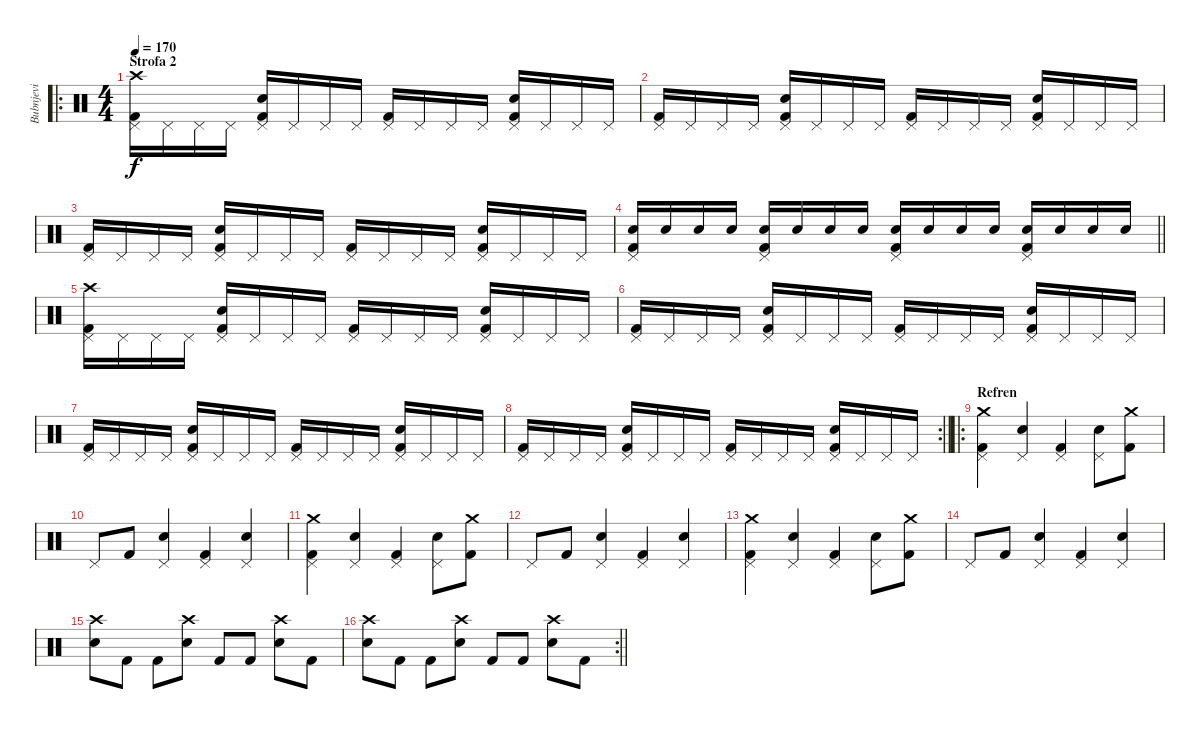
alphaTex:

\track ("Bubnjevi" "Bubnjevi") {instrument percussion}
\staff {score}
\articulation defaults
\ro
\ts (4 4)
\section ("" "Strofa 2")
\tempo 170
\clef neutral
\ks c
("Crash high (hit)" "Pedal Hi-Hat (hit)" "Kick (hit) 2").16{dy f} "Pedal Hi-Hat (hit)".16 "Pedal Hi-Hat (hit)".16 "Pedal Hi-Hat (hit)".16 ("Pedal Hi-Hat (hit)" "Electric Snare (hit)" "Kick (hit) 2").16 "Pedal Hi-Hat (hit)".16 "Pedal Hi-Hat (hit)".16 "Pedal Hi-Hat (hit)".16 ("Pedal Hi-Hat (hit)" "Kick (hit) 2").16 "Pedal Hi-Hat (hit)".16 "Pedal Hi-Hat (hit)".16 "Pedal Hi-Hat (hit)".16 ("Pedal Hi-Hat (hit)" "Electric Snare (hit)" "Kick (hit) 2").16 "Pedal Hi-Hat (hit)".16 "Pedal Hi-Hat (hit)".16 "Pedal Hi-Hat (hit)".16 |
("Pedal Hi-Hat (hit)" "Kick (hit) 2").16 "Pedal Hi-Hat (hit)".16 "Pedal Hi-Hat (hit)".16 "Pedal Hi-Hat (hit)".16 ("Pedal Hi-Hat (hit)" "Electric Snare (hit)" "Kick (hit) 2").16 "Pedal Hi-Hat (hit)".16 "Pedal Hi-Hat (hit)".16 "Pedal Hi-Hat (hit)".16 ("Pedal Hi-Hat (hit)" "Kick (hit) 2").16 "Pedal Hi-Hat (hit)".16 "Pedal Hi-Hat (hit)".16 "Pedal Hi-Hat (hit)".16 ("Pedal Hi-Hat (hit)" "Electric Snare (hit)" "Kick (hit) 2").16 "Pedal Hi-Hat (hit)".16 "Pedal Hi-Hat (hit)".16 "Pedal Hi-Hat (hit)".16 |
("Pedal Hi-Hat (hit)" "Kick (hit) 2").16 "Pedal Hi-Hat (hit)".16 "Pedal Hi-Hat (hit)".16 "Pedal Hi-Hat (hit)".16 ("Pedal Hi-Hat (hit)" "Electric Snare (hit)" "Kick (hit) 2").16 "Pedal Hi-Hat (hit)".16 "Pedal Hi-Hat (hit)".16 "Pedal Hi-Hat (hit)".16 ("Pedal Hi-Hat (hit)" "Kick (hit) 2").16 "Pedal Hi-Hat (hit)".16 "Pedal Hi-Hat (hit)".16 "Pedal Hi-Hat (hit)".16 ("Pedal Hi-Hat (hit)" "Electric Snare (hit)" "Kick (hit) 2").16 "Pedal Hi-Hat (hit)".16 "Pedal Hi-Hat (hit)".16 "Pedal Hi-Hat (hit)".16 |
\barLineRight lightlight
("Pedal Hi-Hat (hit)" "Electric Snare (hit)" "Kick (hit) 2").16 "Electric Snare (hit)".16 "Electric Snare (hit)".16 "Electric Snare (hit)".16 ("Pedal Hi-Hat (hit)" "Electric Snare (hit)" "Kick (hit) 2").16 "Electric Snare (hit)".16 "Electric Snare (hit)".16 "Electric Snare (hit)".16 ("Pedal Hi-Hat (hit)" "Electric Snare (hit)" "Kick (hit) 2").16 "Electric Snare (hit)".16 "Electric Snare (hit)".16 "Electric Snare (hit)".16 ("Pedal Hi-Hat (hit)" "Electric Snare (hit)" "Kick (hit) 2").16 "Electric Snare (hit)".16 "Electric Snare (hit)".16 "Electric Snare (hit)".16 |
("Crash high (hit)" "Pedal Hi-Hat (hit)" "Kick (hit) 2").16 "Pedal Hi-Hat (hit)".16 "Pedal Hi-Hat (hit)".16 "Pedal Hi-Hat (hit)".16 ("Pedal Hi-Hat (hit)" "Electric Snare (hit)" "Kick (hit) 2").16 "Pedal Hi-Hat (hit)".16 "Pedal Hi-Hat (hit)".16 "Pedal Hi-Hat (hit)".16 ("Pedal Hi-Hat (hit)" "Kick (hit) 2").16 "Pedal Hi-Hat (hit)".16 "Pedal Hi-Hat (hit)".16 "Pedal Hi-Hat (hit)".16 ("Pedal Hi-Hat (hit)" "Electric Snare (hit)" "Kick (hit) 2").16 "Pedal Hi-Hat (hit)".16 "Pedal Hi-Hat (hit)".16 "Pedal Hi-Hat (hit)".16 |
("Pedal Hi-Hat (hit)" "Kick (hit) 2").16 "Pedal Hi-Hat (hit)".16 "Pedal Hi-Hat (hit)".16 "Pedal Hi-Hat (hit)".16 ("Pedal Hi-Hat (hit)" "Electric Snare (hit)" "Kick (hit) 2").16 "Pedal Hi-Hat (hit)".16 "Pedal Hi-Hat (hit)".16 "Pedal Hi-Hat (hit)".16 ("Pedal Hi-Hat (hit)" "Kick (hit) 2").16 "Pedal Hi-Hat (hit)".16 "Pedal Hi-Hat (hit)".16 "Pedal Hi-Hat (hit)".16 ("Pedal Hi-Hat (hit)" "Electric Snare (hit)" "Kick (hit) 2").16 "Pedal Hi-Hat (hit)".16 "Pedal Hi-Hat (hit)".16 "Pedal Hi-Hat (hit)".16 |
("Pedal Hi-Hat (hit)" "Kick (hit) 2").16 "Pedal Hi-Hat (hit)".16 "Pedal Hi-Hat (hit)".16 "Pedal Hi-Hat (hit)".16 ("Pedal Hi-Hat (hit)" "Electric Snare (hit)" "Kick (hit) 2").16 "Pedal Hi-Hat (hit)".16 "Pedal Hi-Hat (hit)".16 "Pedal Hi-Hat (hit)".16 ("Pedal Hi-Hat (hit)" "Kick (hit) 2").16 "Pedal Hi-Hat (hit)".16 "Pedal Hi-Hat (hit)".16 "Pedal Hi-Hat (hit)".16 ("Pedal Hi-Hat (hit)" "Electric Snare (hit)" "Kick (hit) 2").16 "Pedal Hi-Hat (hit)".16 "Pedal Hi-Hat (hit)".16 "Pedal Hi-Hat (hit)".16 |
\rc 2
\barLineRight lightlight
("Pedal Hi-Hat (hit)" "Kick (hit) 2").16 "Pedal Hi-Hat (hit)".16 "Pedal Hi-Hat (hit)".16 "Pedal Hi-Hat (hit)".16 ("Pedal Hi-Hat (hit)" "Electric Snare (hit)" "Kick (hit) 2").16 "Pedal Hi-Hat (hit)".16 "Pedal Hi-Hat (hit)".16 "Pedal Hi-Hat (hit)".16 ("Pedal Hi-Hat (hit)" "Kick (hit) 2").16 "Pedal Hi-Hat (hit)".16 "Pedal Hi-Hat (hit)".16 "Pedal Hi-Hat (hit)".16 ("Pedal Hi-Hat (hit)" "Electric Snare (hit)" "Kick (hit) 2").16 "Pedal Hi-Hat (hit)".16 "Pedal Hi-Hat (hit)".16 "Pedal Hi-Hat (hit)".16 |
\ro
\section ("" "Refren")
("Crash medium (hit)" "Pedal Hi-Hat (hit)" "Kick (hit) 2").4 ("Pedal Hi-Hat (hit)" "Electric Snare (hit)").4 ("Pedal Hi-Hat (hit)" "Kick (hit) 2").4 ("Pedal Hi-Hat (hit)" "Electric Snare (hit)").8 ("Crash medium (hit)" "Kick (hit) 2").8 |
"Pedal Hi-Hat (hit)".8 "Kick (hit) 2".8 ("Pedal Hi-Hat (hit)" "Electric Snare (hit)").4 ("Pedal Hi-Hat (hit)" "Kick (hit) 2").4 ("Pedal Hi-Hat (hit)" "Electric Snare (hit)").4 |
("Crash medium (hit)" "Pedal Hi-Hat (hit)" "Kick (hit) 2").4 ("Pedal Hi-Hat (hit)" "Electric Snare (hit)").4 ("Pedal Hi-Hat (hit)" "Kick (hit) 2").4 ("Pedal Hi-Hat (hit)" "Electric Snare (hit)").8 ("Crash medium (hit)" "Kick (hit) 2").8 |
"Pedal Hi-Hat (hit)".8 "Kick (hit) 2".8 ("Pedal Hi-Hat (hit)" "Electric Snare (hit)").4 ("Pedal Hi-Hat (hit)" "Kick (hit) 2").4 ("Pedal Hi-Hat (hit)" "Electric Snare (hit)").4 |
("Crash medium (hit)" "Pedal Hi-Hat (hit)" "Kick (hit) 2").4 ("Pedal Hi-Hat (hit)" "Electric Snare (hit)").4 ("Pedal Hi-Hat (hit)" "Kick (hit) 2").4 ("Pedal Hi-Hat (hit)" "Electric Snare (hit)").8 ("Crash medium (hit)" "Kick (hit) 2").8 |
"Pedal Hi-Hat (hit)".8 "Kick (hit) 2".8 ("Pedal Hi-Hat (hit)" "Electric Snare (hit)").4 ("Pedal Hi-Hat (hit)" "Kick (hit) 2").4 ("Pedal Hi-Hat (hit)" "Electric Snare (hit)").4 |
("Crash high (hit)" "Electric Snare (hit)").8 "Kick (hit) 2".8 "Kick (hit) 2".8 ("Crash high (hit)" "Electric Snare (hit)").8 "Kick (hit) 2".8 "Kick (hit) 2".8 ("Crash high (hit)" "Electric Snare (hit)").8 "Kick (hit) 2".8 |
\rc 2
\barLineRight lightlight
("Crash high (hit)" "Electric Snare (hit)").8 "Kick (hit) 2".8 "Kick (hit) 2".8 ("Crash high (hit)" "Electric Snare (hit)").8 "Kick (hit) 2".8 "Kick (hit) 2".8 ("Crash high (hit)" "Electric Snare (hit)").8 "Kick (hit) 2".8
